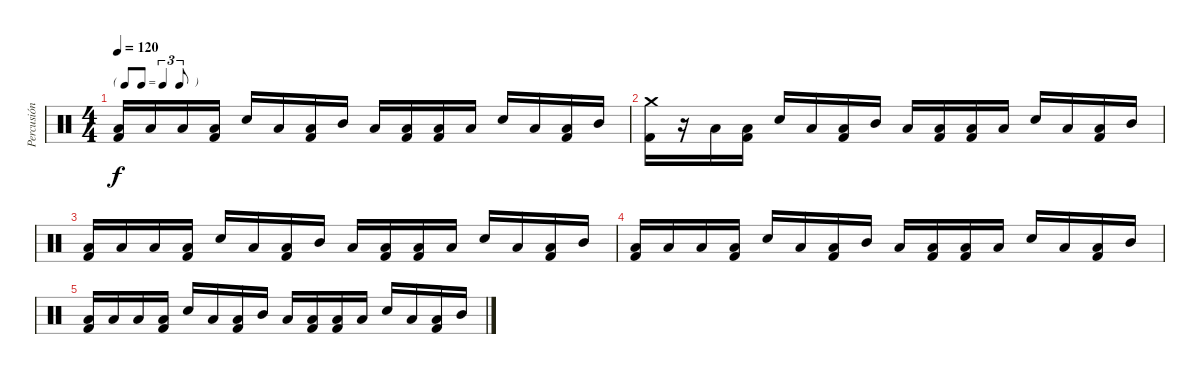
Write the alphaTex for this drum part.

\track ("Percusión" "Percusión") {instrument percussion}
\staff {score}
\articulation defaults
\ts (4 4)
\tf triplet8th
\tempo 120
\clef neutral
\ks c
("Low Tom (hit)" "Kick (hit) 2").16{dy f} "Low Tom (hit)".16 "Low Tom (hit)".16 ("Low Tom (hit)" "Kick (hit) 2").16 "Snare (hit) 2".16 "Low Tom (hit)".16 ("Low Tom (hit)" "Kick (hit) 2").16 "Mid Tom (hit)".16 "Low Tom (hit)".16 ("Low Tom (hit)" "Kick (hit) 2").16 ("Low Tom (hit)" "Kick (hit) 2").16 "Low Tom (hit)".16 "Snare (hit) 2".16 "Low Tom (hit)".16 ("Low Tom (hit)" "Kick (hit) 2").16 "Mid Tom (hit)".16 |
("Crash medium (hit)" "Kick (hit) 2").16 r.16 "Low Tom (hit)".16 ("Low Tom (hit)" "Kick (hit) 2").16 "Snare (hit) 2".16 "Low Tom (hit)".16 ("Low Tom (hit)" "Kick (hit) 2").16 "Mid Tom (hit)".16 "Low Tom (hit)".16 ("Low Tom (hit)" "Kick (hit) 2").16 ("Low Tom (hit)" "Kick (hit) 2").16 "Low Tom (hit)".16 "Snare (hit) 2".16 "Low Tom (hit)".16 ("Low Tom (hit)" "Kick (hit) 2").16 "Mid Tom (hit)".16 |
("Low Tom (hit)" "Kick (hit) 2").16 "Low Tom (hit)".16 "Low Tom (hit)".16 ("Low Tom (hit)" "Kick (hit) 2").16 "Snare (hit) 2".16 "Low Tom (hit)".16 ("Low Tom (hit)" "Kick (hit) 2").16 "Mid Tom (hit)".16 "Low Tom (hit)".16 ("Low Tom (hit)" "Kick (hit) 2").16 ("Low Tom (hit)" "Kick (hit) 2").16 "Low Tom (hit)".16 "Snare (hit) 2".16 "Low Tom (hit)".16 ("Low Tom (hit)" "Kick (hit) 2").16 "Mid Tom (hit)".16 |
("Low Tom (hit)" "Kick (hit) 2").16 "Low Tom (hit)".16 "Low Tom (hit)".16 ("Low Tom (hit)" "Kick (hit) 2").16 "Snare (hit) 2".16 "Low Tom (hit)".16 ("Low Tom (hit)" "Kick (hit) 2").16 "Mid Tom (hit)".16 "Low Tom (hit)".16 ("Low Tom (hit)" "Kick (hit) 2").16 ("Low Tom (hit)" "Kick (hit) 2").16 "Low Tom (hit)".16 "Snare (hit) 2".16 "Low Tom (hit)".16 ("Low Tom (hit)" "Kick (hit) 2").16 "Mid Tom (hit)".16 |
("Low Tom (hit)" "Kick (hit) 2").16 "Low Tom (hit)".16 "Low Tom (hit)".16 ("Low Tom (hit)" "Kick (hit) 2").16 "Snare (hit) 2".16 "Low Tom (hit)".16 ("Low Tom (hit)" "Kick (hit) 2").16 "Mid Tom (hit)".16 "Low Tom (hit)".16 ("Low Tom (hit)" "Kick (hit) 2").16 ("Low Tom (hit)" "Kick (hit) 2").16 "Low Tom (hit)".16 "Snare (hit) 2".16 "Low Tom (hit)".16 ("Low Tom (hit)" "Kick (hit) 2").16 "Mid Tom (hit)".16
